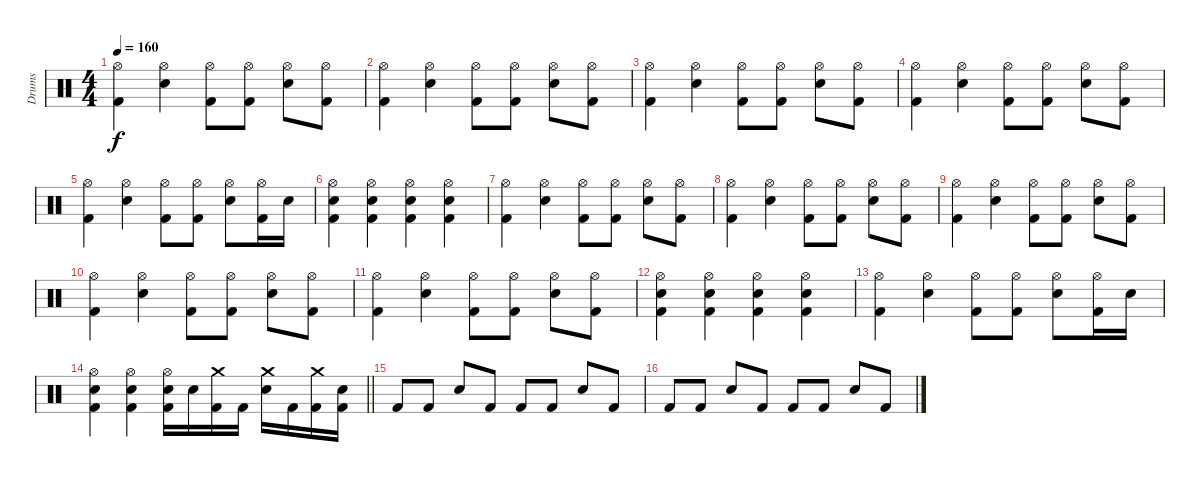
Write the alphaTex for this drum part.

\track ("Drums" "Drums") {instrument percussion}
\staff {score}
\articulation defaults
\ts (4 4)
\tempo 160
\clef neutral
\ks c
("Hi-Hat (open)" "Kick (hit) 2").4{dy f} ("Hi-Hat (open)" "Snare (hit) 2").4 ("Hi-Hat (open)" "Kick (hit) 2").8 ("Hi-Hat (open)" "Kick (hit) 2").8 ("Hi-Hat (open)" "Snare (hit) 2").8 ("Hi-Hat (open)" "Kick (hit) 2").8 |
("Hi-Hat (open)" "Kick (hit) 2").4 ("Hi-Hat (open)" "Snare (hit) 2").4 ("Hi-Hat (open)" "Kick (hit) 2").8 ("Hi-Hat (open)" "Kick (hit) 2").8 ("Hi-Hat (open)" "Snare (hit) 2").8 ("Hi-Hat (open)" "Kick (hit) 2").8 |
("Hi-Hat (open)" "Kick (hit) 2").4 ("Hi-Hat (open)" "Snare (hit) 2").4 ("Hi-Hat (open)" "Kick (hit) 2").8 ("Hi-Hat (open)" "Kick (hit) 2").8 ("Hi-Hat (open)" "Snare (hit) 2").8 ("Hi-Hat (open)" "Kick (hit) 2").8 |
("Hi-Hat (open)" "Kick (hit) 2").4 ("Hi-Hat (open)" "Snare (hit) 2").4 ("Hi-Hat (open)" "Kick (hit) 2").8 ("Hi-Hat (open)" "Kick (hit) 2").8 ("Hi-Hat (open)" "Snare (hit) 2").8 ("Hi-Hat (open)" "Kick (hit) 2").8 |
("Hi-Hat (open)" "Kick (hit) 2").4 ("Hi-Hat (open)" "Snare (hit) 2").4 ("Hi-Hat (open)" "Kick (hit) 2").8 ("Hi-Hat (open)" "Kick (hit) 2").8 ("Hi-Hat (open)" "Snare (hit) 2").8 ("Hi-Hat (open)" "Kick (hit) 2").16 "Snare (hit) 2".16 |
("Hi-Hat (open)" "Snare (hit) 2" "Kick (hit) 2").4 ("Hi-Hat (open)" "Snare (hit) 2" "Kick (hit) 2").4 ("Hi-Hat (open)" "Snare (hit) 2" "Kick (hit) 2").4 ("Hi-Hat (open)" "Snare (hit) 2" "Kick (hit) 2").4 |
("Hi-Hat (open)" "Kick (hit) 2").4 ("Hi-Hat (open)" "Snare (hit) 2").4 ("Hi-Hat (open)" "Kick (hit) 2").8 ("Hi-Hat (open)" "Kick (hit) 2").8 ("Hi-Hat (open)" "Snare (hit) 2").8 ("Hi-Hat (open)" "Kick (hit) 2").8 |
("Hi-Hat (open)" "Kick (hit) 2").4 ("Hi-Hat (open)" "Snare (hit) 2").4 ("Hi-Hat (open)" "Kick (hit) 2").8 ("Hi-Hat (open)" "Kick (hit) 2").8 ("Hi-Hat (open)" "Snare (hit) 2").8 ("Hi-Hat (open)" "Kick (hit) 2").8 |
("Hi-Hat (open)" "Kick (hit) 2").4 ("Hi-Hat (open)" "Snare (hit) 2").4 ("Hi-Hat (open)" "Kick (hit) 2").8 ("Hi-Hat (open)" "Kick (hit) 2").8 ("Hi-Hat (open)" "Snare (hit) 2").8 ("Hi-Hat (open)" "Kick (hit) 2").8 |
("Hi-Hat (open)" "Kick (hit) 2").4 ("Hi-Hat (open)" "Snare (hit) 2").4 ("Hi-Hat (open)" "Kick (hit) 2").8 ("Hi-Hat (open)" "Kick (hit) 2").8 ("Hi-Hat (open)" "Snare (hit) 2").8 ("Hi-Hat (open)" "Kick (hit) 2").8 |
("Hi-Hat (open)" "Kick (hit) 2").4 ("Hi-Hat (open)" "Snare (hit) 2").4 ("Hi-Hat (open)" "Kick (hit) 2").8 ("Hi-Hat (open)" "Kick (hit) 2").8 ("Hi-Hat (open)" "Snare (hit) 2").8 ("Hi-Hat (open)" "Kick (hit) 2").8 |
("Hi-Hat (open)" "Snare (hit) 2" "Kick (hit) 2").4 ("Hi-Hat (open)" "Snare (hit) 2" "Kick (hit) 2").4 ("Hi-Hat (open)" "Snare (hit) 2" "Kick (hit) 2").4 ("Hi-Hat (open)" "Snare (hit) 2" "Kick (hit) 2").4 |
("Hi-Hat (open)" "Kick (hit) 2").4 ("Hi-Hat (open)" "Snare (hit) 2").4 ("Hi-Hat (open)" "Kick (hit) 2").8 ("Hi-Hat (open)" "Kick (hit) 2").8 ("Hi-Hat (open)" "Snare (hit) 2").8 ("Hi-Hat (open)" "Kick (hit) 2").16 "Snare (hit) 2".16 |
\barLineRight lightlight
("Hi-Hat (open)" "Snare (hit) 2" "Kick (hit) 2").4 ("Hi-Hat (open)" "Snare (hit) 2" "Kick (hit) 2").4 ("Hi-Hat (open)" "Snare (hit) 2" "Kick (hit) 2").16 "Snare (hit) 2".16 ("Crash medium (hit)" "Kick (hit) 2").16 "Kick (hit) 2".16 ("Crash medium (hit)" "Snare (hit) 2").16 "Kick (hit) 2".16 ("Crash medium (hit)" "Kick (hit) 2").16 ("Snare (hit) 2" "Kick (hit) 2").16 |
"Kick (hit) 2".8 "Kick (hit) 2".8 "Snare (hit) 2".8 "Kick (hit) 2".8 "Kick (hit) 2".8 "Kick (hit) 2".8 "Snare (hit) 2".8 "Kick (hit) 2".8 |
"Kick (hit) 2".8 "Kick (hit) 2".8 "Snare (hit) 2".8 "Kick (hit) 2".8 "Kick (hit) 2".8 "Kick (hit) 2".8 "Snare (hit) 2".8 "Kick (hit) 2".8
